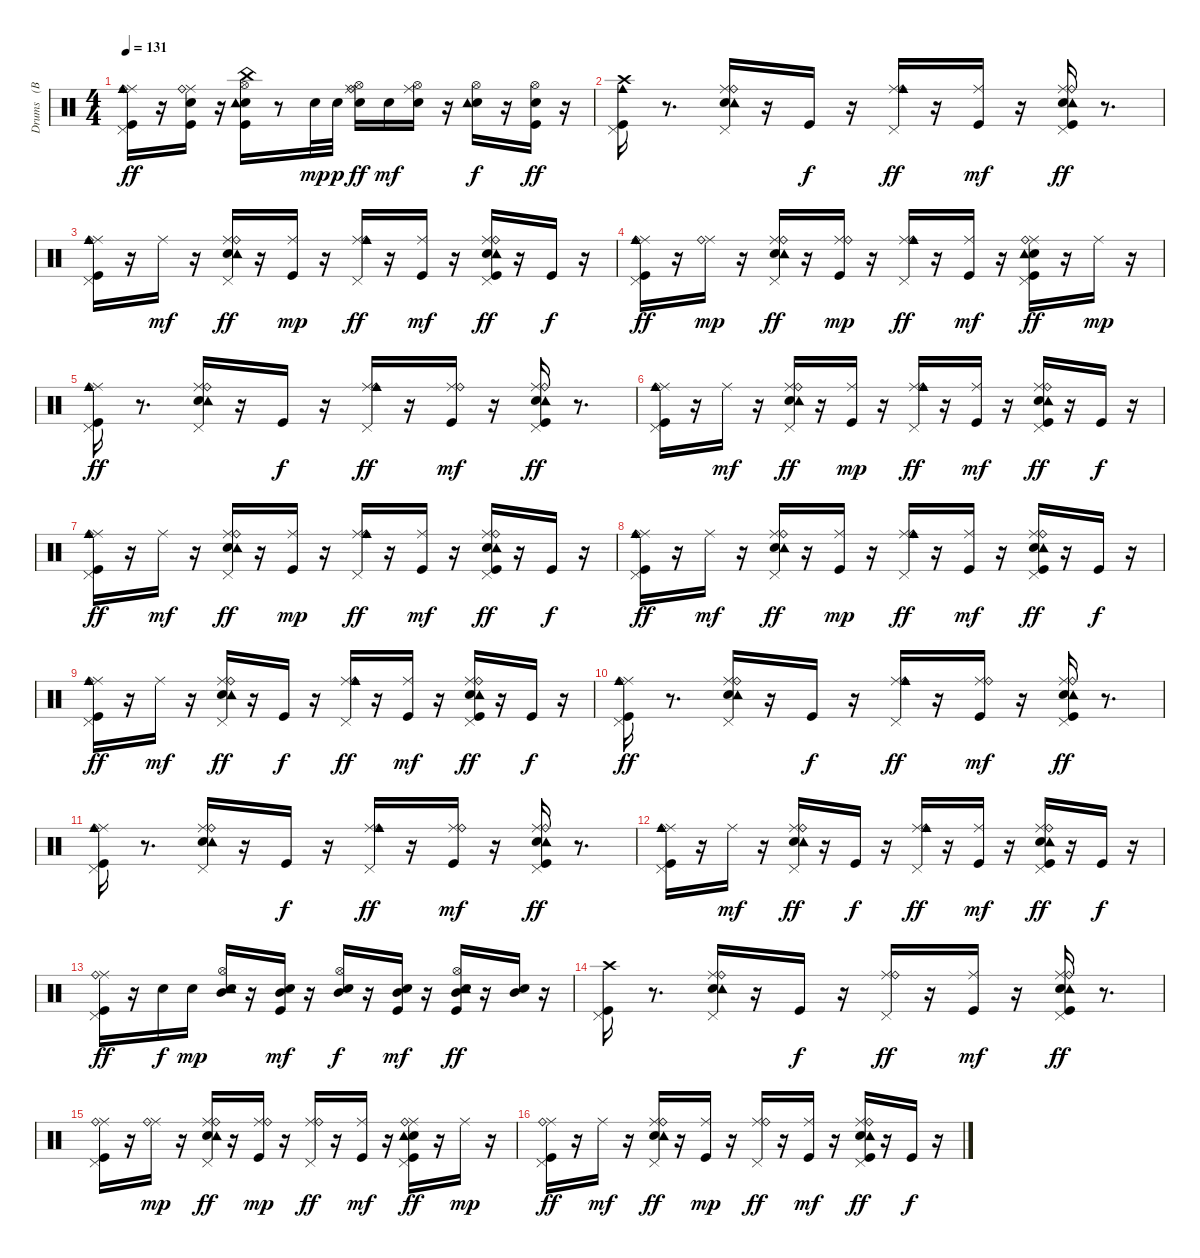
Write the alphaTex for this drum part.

\track ("Drums   (BB)" "Drums   (B") {instrument percussion}
\staff {score}
\articulation defaults
\ts (4 4)
\tempo 131
\clef neutral
\ks c
("Kick (hit)" "Pedal Hi-Hat (hit)" "Ride (middle)" "Ride (bell)" "Cowbell medium (hit)").16{dy ff} r.16 ("Kick (hit)" "Snare (hit) 2" "Ride (middle)" "Ride (bell)").16 r.16 ("Kick (hit)" "Snare (hit) 2" "Tambourine (hit)" "Hi-Hat (open)" "China (hit)").16 r.8 "Snare (hit) 2".32{dy mp} "Snare (hit) 2".32{dy p} ("Snare (hit) 2" "Hi-Hat (open)" "Ride (middle)" "Ride (bell)").16{dy ff} "Snare (hit) 2".16{dy mf} ("Snare (hit) 2" "Hi-Hat (open)" "Ride (middle)").16 r.16 ("Snare (hit) 2" "Tambourine (hit)" "Hi-Hat (open)").16{dy f} r.16 ("Kick (hit)" "Snare (hit) 2" "Hi-Hat (open)").16{dy ff} r.16 |
("Kick (hit)" "Pedal Hi-Hat (hit)" "Crash high (hit)" "Cowbell medium (hit)").16 r.8{d} ("Snare (hit) 2" "Tambourine (hit)" "Pedal Hi-Hat (hit)" "Ride (middle)" "Ride (bell)").16 r.16 "Kick (hit)".16{dy f} r.16 ("Pedal Hi-Hat (hit)" "Ride (middle)" "Ride (bell)" "Cowbell medium (hit)").16{dy ff} r.16 ("Kick (hit)" "Ride (middle)").16{dy mf} r.16 ("Kick (hit)" "Snare (hit) 2" "Tambourine (hit)" "Pedal Hi-Hat (hit)" "Ride (middle)" "Ride (bell)").16{dy ff} r.8{d} |
("Kick (hit)" "Pedal Hi-Hat (hit)" "Ride (middle)" "Ride (bell)" "Cowbell medium (hit)").16 r.16 "Ride (middle)".16{dy mf} r.16 ("Snare (hit) 2" "Tambourine (hit)" "Pedal Hi-Hat (hit)" "Ride (middle)" "Ride (bell)").16{dy ff} r.16 ("Kick (hit)" "Ride (middle)").16{dy mp} r.16 ("Pedal Hi-Hat (hit)" "Ride (middle)" "Ride (bell)" "Cowbell medium (hit)").16{dy ff} r.16 ("Kick (hit)" "Ride (middle)").16{dy mf} r.16 ("Kick (hit)" "Snare (hit) 2" "Tambourine (hit)" "Pedal Hi-Hat (hit)" "Ride (middle)" "Ride (bell)").16{dy ff} r.16 "Kick (hit)".16{dy f} r.16 |
("Kick (hit)" "Pedal Hi-Hat (hit)" "Ride (middle)" "Ride (bell)" "Cowbell medium (hit)").16{dy ff} r.16 ("Ride (middle)" "Ride (bell)").16{dy mp} r.16 ("Snare (hit) 2" "Tambourine (hit)" "Pedal Hi-Hat (hit)" "Ride (middle)" "Ride (bell)").16{dy ff} r.16 ("Kick (hit)" "Ride (middle)" "Ride (bell)").16{dy mp} r.16 ("Pedal Hi-Hat (hit)" "Ride (middle)" "Ride (bell)" "Cowbell medium (hit)").16{dy ff} r.16 ("Kick (hit)" "Ride (middle)").16{dy mf} r.16 ("Kick (hit)" "Snare (hit) 2" "Tambourine (hit)" "Pedal Hi-Hat (hit)" "Ride (middle)" "Ride (bell)").16{dy ff} r.16 "Ride (middle)".16{dy mp} r.16 |
("Kick (hit)" "Pedal Hi-Hat (hit)" "Ride (middle)" "Ride (bell)" "Cowbell medium (hit)").16{dy ff} r.8{d} ("Snare (hit) 2" "Tambourine (hit)" "Pedal Hi-Hat (hit)" "Ride (middle)" "Ride (bell)").16 r.16 "Kick (hit)".16{dy f} r.16 ("Pedal Hi-Hat (hit)" "Ride (middle)" "Ride (bell)" "Cowbell medium (hit)").16{dy ff} r.16 ("Kick (hit)" "Ride (middle)" "Ride (bell)").16{dy mf} r.16 ("Kick (hit)" "Snare (hit) 2" "Tambourine (hit)" "Pedal Hi-Hat (hit)" "Ride (middle)" "Ride (bell)").16{dy ff} r.8{d} |
("Kick (hit)" "Pedal Hi-Hat (hit)" "Ride (middle)" "Ride (bell)" "Cowbell medium (hit)").16 r.16 "Ride (middle)".16{dy mf} r.16 ("Snare (hit) 2" "Tambourine (hit)" "Pedal Hi-Hat (hit)" "Ride (middle)" "Ride (bell)").16{dy ff} r.16 ("Kick (hit)" "Ride (middle)").16{dy mp} r.16 ("Pedal Hi-Hat (hit)" "Ride (middle)" "Ride (bell)" "Cowbell medium (hit)").16{dy ff} r.16 ("Kick (hit)" "Ride (middle)").16{dy mf} r.16 ("Kick (hit)" "Snare (hit) 2" "Tambourine (hit)" "Pedal Hi-Hat (hit)" "Ride (middle)" "Ride (bell)").16{dy ff} r.16 "Kick (hit)".16{dy f} r.16 |
("Kick (hit)" "Pedal Hi-Hat (hit)" "Ride (middle)" "Ride (bell)" "Cowbell medium (hit)").16{dy ff} r.16 "Ride (middle)".16{dy mf} r.16 ("Snare (hit) 2" "Tambourine (hit)" "Pedal Hi-Hat (hit)" "Ride (middle)" "Ride (bell)").16{dy ff} r.16 ("Kick (hit)" "Ride (middle)").16{dy mp} r.16 ("Pedal Hi-Hat (hit)" "Ride (middle)" "Ride (bell)" "Cowbell medium (hit)").16{dy ff} r.16 ("Kick (hit)" "Ride (middle)").16{dy mf} r.16 ("Kick (hit)" "Snare (hit) 2" "Tambourine (hit)" "Pedal Hi-Hat (hit)" "Ride (middle)" "Ride (bell)").16{dy ff} r.16 "Kick (hit)".16{dy f} r.16 |
("Kick (hit)" "Pedal Hi-Hat (hit)" "Ride (middle)" "Ride (bell)" "Cowbell medium (hit)").16{dy ff} r.16 "Ride (middle)".16{dy mf} r.16 ("Snare (hit) 2" "Tambourine (hit)" "Pedal Hi-Hat (hit)" "Ride (middle)" "Ride (bell)").16{dy ff} r.16 ("Kick (hit)" "Ride (middle)").16{dy mp} r.16 ("Pedal Hi-Hat (hit)" "Ride (middle)" "Ride (bell)" "Cowbell medium (hit)").16{dy ff} r.16 ("Kick (hit)" "Ride (middle)").16{dy mf} r.16 ("Kick (hit)" "Snare (hit) 2" "Tambourine (hit)" "Pedal Hi-Hat (hit)" "Ride (middle)" "Ride (bell)").16{dy ff} r.16 "Kick (hit)".16{dy f} r.16 |
("Kick (hit)" "Pedal Hi-Hat (hit)" "Ride (middle)" "Ride (bell)" "Cowbell medium (hit)").16{dy ff} r.16 "Ride (middle)".16{dy mf} r.16 ("Snare (hit) 2" "Tambourine (hit)" "Pedal Hi-Hat (hit)" "Ride (middle)" "Ride (bell)").16{dy ff} r.16 "Kick (hit)".16{dy f} r.16 ("Pedal Hi-Hat (hit)" "Ride (middle)" "Ride (bell)" "Cowbell medium (hit)").16{dy ff} r.16 ("Kick (hit)" "Ride (middle)").16{dy mf} r.16 ("Kick (hit)" "Snare (hit) 2" "Tambourine (hit)" "Pedal Hi-Hat (hit)" "Ride (middle)" "Ride (bell)").16{dy ff} r.16 "Kick (hit)".16{dy f} r.16 |
("Kick (hit)" "Pedal Hi-Hat (hit)" "Ride (middle)" "Ride (bell)" "Cowbell medium (hit)").16{dy ff} r.8{d} ("Snare (hit) 2" "Tambourine (hit)" "Pedal Hi-Hat (hit)" "Ride (middle)" "Ride (bell)").16 r.16 "Kick (hit)".16{dy f} r.16 ("Pedal Hi-Hat (hit)" "Ride (middle)" "Ride (bell)" "Cowbell medium (hit)").16{dy ff} r.16 ("Kick (hit)" "Ride (middle)" "Ride (bell)").16{dy mf} r.16 ("Kick (hit)" "Snare (hit) 2" "Tambourine (hit)" "Pedal Hi-Hat (hit)" "Ride (middle)" "Ride (bell)").16{dy ff} r.8{d} |
("Kick (hit)" "Pedal Hi-Hat (hit)" "Ride (middle)" "Ride (bell)" "Cowbell medium (hit)").16 r.8{d} ("Snare (hit) 2" "Tambourine (hit)" "Pedal Hi-Hat (hit)" "Ride (middle)" "Ride (bell)").16 r.16 "Kick (hit)".16{dy f} r.16 ("Pedal Hi-Hat (hit)" "Ride (middle)" "Ride (bell)" "Cowbell medium (hit)").16{dy ff} r.16 ("Kick (hit)" "Ride (middle)" "Ride (bell)").16{dy mf} r.16 ("Kick (hit)" "Snare (hit) 2" "Tambourine (hit)" "Pedal Hi-Hat (hit)" "Ride (middle)" "Ride (bell)").16{dy ff} r.8{d} |
("Kick (hit)" "Pedal Hi-Hat (hit)" "Ride (middle)" "Ride (bell)" "Cowbell medium (hit)").16 r.16 "Ride (middle)".16{dy mf} r.16 ("Snare (hit) 2" "Tambourine (hit)" "Pedal Hi-Hat (hit)" "Ride (middle)" "Ride (bell)").16{dy ff} r.16 "Kick (hit)".16{dy f} r.16 ("Pedal Hi-Hat (hit)" "Ride (middle)" "Ride (bell)" "Cowbell medium (hit)").16{dy ff} r.16 ("Kick (hit)" "Ride (middle)").16{dy mf} r.16 ("Kick (hit)" "Snare (hit) 2" "Tambourine (hit)" "Pedal Hi-Hat (hit)" "Ride (middle)" "Ride (bell)").16{dy ff} r.16 "Kick (hit)".16{dy f} r.16 |
("Kick (hit)" "Pedal Hi-Hat (hit)" "Ride (middle)" "Ride (bell)").16{dy ff} r.16 "Snare (hit) 2".16{dy f} "Snare (hit) 2".16{dy mp} ("Snare (hit) 2" "Tambourine (hit)" "Hi-Hat (open)" "Mid Tom (hit)").16 r.16 ("Kick (hit)" "Snare (hit) 2" "Mid Tom (hit)").16{dy mf} r.16 ("Snare (hit) 2" "Hi-Hat (open)" "Mid Tom (hit)").16{dy f} r.16 ("Kick (hit)" "Snare (hit) 2" "Mid Tom (hit)").16{dy mf} r.16 ("Kick (hit)" "Snare (hit) 2" "Tambourine (hit)" "Hi-Hat (open)" "Mid Tom (hit)").16{dy ff} r.16 ("Snare (hit) 2" "Mid Tom (hit)").16 r.16 |
("Kick (hit)" "Pedal Hi-Hat (hit)" "Crash high (hit)").16 r.8{d} ("Snare (hit) 2" "Tambourine (hit)" "Pedal Hi-Hat (hit)" "Ride (middle)" "Ride (bell)").16 r.16 "Kick (hit)".16{dy f} r.16 ("Pedal Hi-Hat (hit)" "Ride (middle)" "Ride (bell)").16{dy ff} r.16 ("Kick (hit)" "Ride (middle)").16{dy mf} r.16 ("Kick (hit)" "Snare (hit) 2" "Tambourine (hit)" "Pedal Hi-Hat (hit)" "Ride (middle)" "Ride (bell)").16{dy ff} r.8{d} |
("Kick (hit)" "Pedal Hi-Hat (hit)" "Ride (middle)" "Ride (bell)").16 r.16 ("Ride (middle)" "Ride (bell)").16{dy mp} r.16 ("Snare (hit) 2" "Tambourine (hit)" "Pedal Hi-Hat (hit)" "Ride (middle)" "Ride (bell)").16{dy ff} r.16 ("Kick (hit)" "Ride (middle)" "Ride (bell)").16{dy mp} r.16 ("Pedal Hi-Hat (hit)" "Ride (middle)" "Ride (bell)").16{dy ff} r.16 ("Kick (hit)" "Ride (middle)").16{dy mf} r.16 ("Kick (hit)" "Snare (hit) 2" "Tambourine (hit)" "Pedal Hi-Hat (hit)" "Ride (middle)" "Ride (bell)").16{dy ff} r.16 "Ride (middle)".16{dy mp} r.16 |
("Kick (hit)" "Pedal Hi-Hat (hit)" "Ride (middle)" "Ride (bell)").16{dy ff} r.16 "Ride (middle)".16{dy mf} r.16 ("Snare (hit) 2" "Tambourine (hit)" "Pedal Hi-Hat (hit)" "Ride (middle)" "Ride (bell)").16{dy ff} r.16 ("Kick (hit)" "Ride (middle)").16{dy mp} r.16 ("Pedal Hi-Hat (hit)" "Ride (middle)" "Ride (bell)").16{dy ff} r.16 ("Kick (hit)" "Ride (middle)").16{dy mf} r.16 ("Kick (hit)" "Snare (hit) 2" "Tambourine (hit)" "Pedal Hi-Hat (hit)" "Ride (middle)" "Ride (bell)").16{dy ff} r.16 "Kick (hit)".16{dy f} r.16
